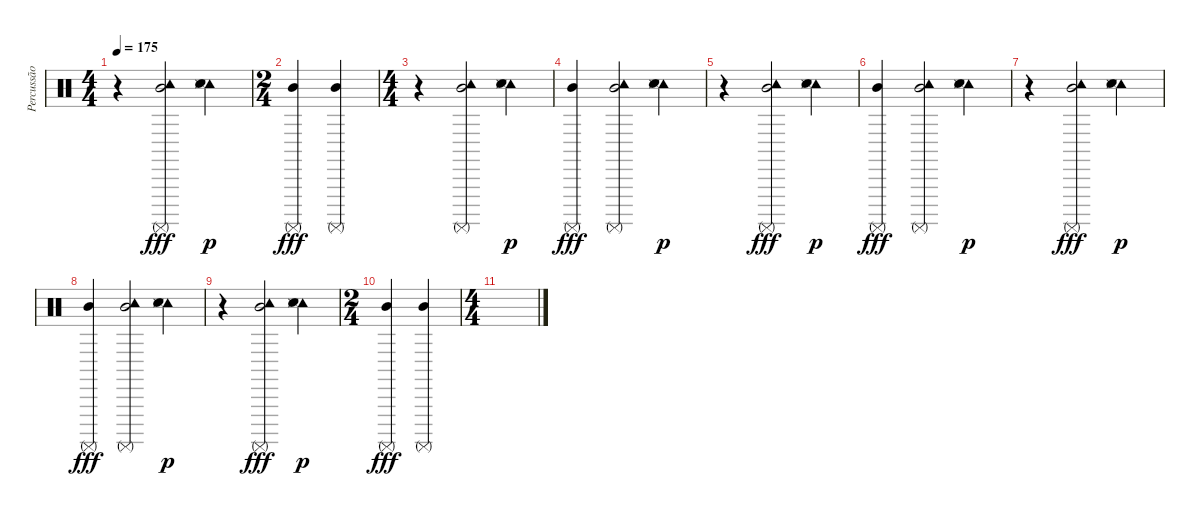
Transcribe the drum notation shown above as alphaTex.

\track ("Percussão" "Percussão") {instrument percussion}
\staff {score}
\articulation defaults
\ts (4 4)
\tempo 175
\clef neutral
\ks c
r.4{dy p} ("Tambourine (hit)" "Mid Tom (hit)" "Surdo (mute)").2{dy fff} ("Tambourine (hit)" "Hand Clap (hit)" "Snare (side stick) 3").4{dy p} |
\ts (2 4)
("Mid Tom (hit)" "Surdo (mute)").4{dy fff} ("Mid Tom (hit)" "Surdo (mute)").4 |
\ts (4 4)
r.4 ("Tambourine (hit)" "Mid Tom (hit)" "Surdo (mute)").2 ("Tambourine (hit)" "Hand Clap (hit)" "Snare (side stick) 3").4{dy p} |
("Mid Tom (hit)" "Surdo (mute)").4{dy fff} ("Tambourine (hit)" "Mid Tom (hit)" "Surdo (mute)").2 ("Tambourine (hit)" "Hand Clap (hit)" "Snare (side stick) 3").4{dy p} |
r.4 ("Tambourine (hit)" "Mid Tom (hit)" "Surdo (mute)").2{dy fff} ("Tambourine (hit)" "Hand Clap (hit)" "Snare (side stick) 3").4{dy p} |
("Mid Tom (hit)" "Surdo (mute)").4{dy fff} ("Tambourine (hit)" "Mid Tom (hit)" "Surdo (mute)").2 ("Tambourine (hit)" "Hand Clap (hit)" "Snare (side stick) 3").4{dy p} |
r.4 ("Tambourine (hit)" "Mid Tom (hit)" "Surdo (mute)").2{dy fff} ("Tambourine (hit)" "Hand Clap (hit)" "Snare (side stick) 3").4{dy p} |
("Mid Tom (hit)" "Surdo (mute)").4{dy fff} ("Tambourine (hit)" "Mid Tom (hit)" "Surdo (mute)").2 ("Tambourine (hit)" "Hand Clap (hit)" "Snare (side stick) 3").4{dy p} |
r.4 ("Tambourine (hit)" "Mid Tom (hit)" "Surdo (mute)").2{dy fff} ("Tambourine (hit)" "Hand Clap (hit)" "Snare (side stick) 3").4{dy p} |
\ts (2 4)
("Mid Tom (hit)" "Surdo (mute)").4{dy fff} ("Mid Tom (hit)" "Surdo (mute)").4 |
\ts (4 4)
